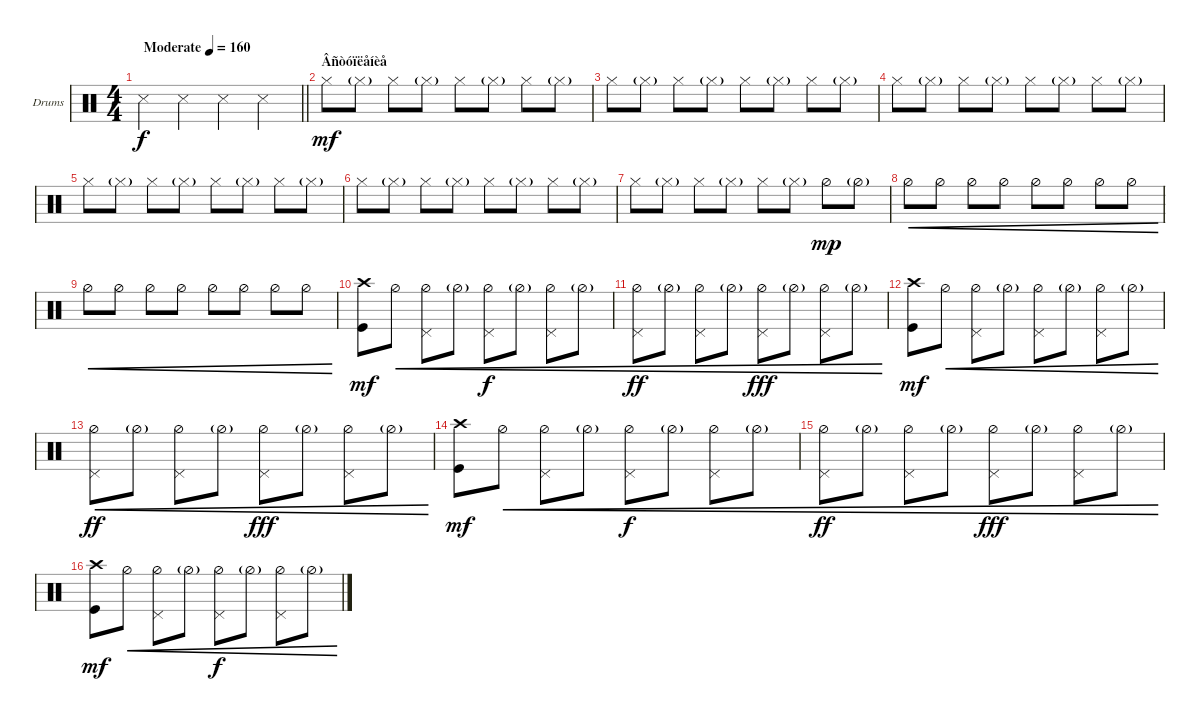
\bracketExtendMode groupsimilarinstruments
\firstSystemTrackNameOrientation horizontal
\otherSystemsTrackNameOrientation horizontal
\track ("Drumkit" "Drums") {instrument percussion}
\staff {score}
\articulation defaults
\ts (4 4)
\beaming (8 2 2 2 2)
\tempo (160 "Moderate")
\clef neutral
\barLineRight lightlight
\ks c "Snare (side stick) 3".4{dy f} "Snare (side stick) 3".4 "Snare (side stick) 3".4 "Snare (side stick) 3".4
|
\section ("" "Âñòóïëåíèå")
"Hi-Hat (closed)".8{dy mf} "Hi-Hat (closed)"{g}.8 "Hi-Hat (closed)".8 "Hi-Hat (closed)"{g}.8 "Hi-Hat (closed)".8 "Hi-Hat (closed)"{g}.8 "Hi-Hat (closed)".8 "Hi-Hat (closed)"{g}.8 |
"Hi-Hat (closed)".8 "Hi-Hat (closed)"{g}.8 "Hi-Hat (closed)".8 "Hi-Hat (closed)"{g}.8 "Hi-Hat (closed)".8 "Hi-Hat (closed)"{g}.8 "Hi-Hat (closed)".8 "Hi-Hat (closed)"{g}.8 |
"Hi-Hat (closed)".8 "Hi-Hat (closed)"{g}.8 "Hi-Hat (closed)".8 "Hi-Hat (closed)"{g}.8 "Hi-Hat (closed)".8 "Hi-Hat (closed)"{g}.8 "Hi-Hat (closed)".8 "Hi-Hat (closed)"{g}.8 |
"Hi-Hat (closed)".8 "Hi-Hat (closed)"{g}.8 "Hi-Hat (closed)".8 "Hi-Hat (closed)"{g}.8 "Hi-Hat (closed)".8 "Hi-Hat (closed)"{g}.8 "Hi-Hat (closed)".8 "Hi-Hat (closed)"{g}.8 |
"Hi-Hat (closed)".8 "Hi-Hat (closed)"{g}.8 "Hi-Hat (closed)".8 "Hi-Hat (closed)"{g}.8 "Hi-Hat (closed)".8 "Hi-Hat (closed)"{g}.8 "Hi-Hat (closed)".8 "Hi-Hat (closed)"{g}.8 |
"Hi-Hat (closed)".8 "Hi-Hat (closed)"{g}.8 "Hi-Hat (closed)".8 "Hi-Hat (closed)"{g}.8 "Hi-Hat (closed)".8 "Hi-Hat (closed)"{g}.8 "Hi-Hat (half)".8{dy mp} "Hi-Hat (half)"{g}.8 |
"Hi-Hat (half)".8{cre} "Hi-Hat (half)".8{cre} "Hi-Hat (half)".8{cre} "Hi-Hat (half)".8{cre} "Hi-Hat (half)".8{cre} "Hi-Hat (half)".8{cre} "Hi-Hat (half)".8{cre} "Hi-Hat (half)".8{cre} |
"Hi-Hat (half)".8{cre} "Hi-Hat (half)".8{cre} "Hi-Hat (half)".8{cre} "Hi-Hat (half)".8{cre} "Hi-Hat (half)".8{cre} "Hi-Hat (half)".8{cre} "Hi-Hat (half)".8{cre} "Hi-Hat (half)".8{cre} |
("Crash high (hit)" "Kick (hit)").8{dy mf} "Hi-Hat (half)".8{cre} ("Pedal Hi-Hat (hit)" "Hi-Hat (half)").8{cre} "Hi-Hat (half)"{g}.8{cre} ("Pedal Hi-Hat (hit)" "Hi-Hat (half)").8{cre dy f} "Hi-Hat (half)"{g}.8{cre} ("Pedal Hi-Hat (hit)" "Hi-Hat (half)").8{cre} "Hi-Hat (half)"{g}.8{cre} |
("Pedal Hi-Hat (hit)" "Hi-Hat (half)").8{cre dy ff} "Hi-Hat (half)"{g}.8{cre} ("Pedal Hi-Hat (hit)" "Hi-Hat (half)").8{cre} "Hi-Hat (half)"{g}.8{cre} ("Pedal Hi-Hat (hit)" "Hi-Hat (half)").8{cre dy fff} "Hi-Hat (half)"{g}.8{cre} ("Pedal Hi-Hat (hit)" "Hi-Hat (half)").8{cre} "Hi-Hat (half)"{g}.8{cre} |
("Crash high (hit)" "Kick (hit)").8{dy mf} "Hi-Hat (half)".8{cre} ("Pedal Hi-Hat (hit)" "Hi-Hat (half)").8{cre} "Hi-Hat (half)"{g}.8{cre} ("Pedal Hi-Hat (hit)" "Hi-Hat (half)").8{cre} "Hi-Hat (half)"{g}.8{cre} ("Pedal Hi-Hat (hit)" "Hi-Hat (half)").8{cre} "Hi-Hat (half)"{g}.8{cre} |
("Pedal Hi-Hat (hit)" "Hi-Hat (half)").8{cre dy ff} "Hi-Hat (half)"{g}.8{cre} ("Pedal Hi-Hat (hit)" "Hi-Hat (half)").8{cre} "Hi-Hat (half)"{g}.8{cre} ("Pedal Hi-Hat (hit)" "Hi-Hat (half)").8{cre dy fff} "Hi-Hat (half)"{g}.8{cre} ("Pedal Hi-Hat (hit)" "Hi-Hat (half)").8{cre} "Hi-Hat (half)"{g}.8{cre} |
("Crash high (hit)" "Kick (hit)").8{dy mf} "Hi-Hat (half)".8{cre} ("Pedal Hi-Hat (hit)" "Hi-Hat (half)").8{cre} "Hi-Hat (half)"{g}.8{cre} ("Pedal Hi-Hat (hit)" "Hi-Hat (half)").8{cre dy f} "Hi-Hat (half)"{g}.8{cre} ("Pedal Hi-Hat (hit)" "Hi-Hat (half)").8{cre} "Hi-Hat (half)"{g}.8{cre} |
("Pedal Hi-Hat (hit)" "Hi-Hat (half)").8{cre dy ff} "Hi-Hat (half)"{g}.8{cre} ("Pedal Hi-Hat (hit)" "Hi-Hat (half)").8{cre} "Hi-Hat (half)"{g}.8{cre} ("Pedal Hi-Hat (hit)" "Hi-Hat (half)").8{cre dy fff} "Hi-Hat (half)"{g}.8{cre} ("Pedal Hi-Hat (hit)" "Hi-Hat (half)").8{cre} "Hi-Hat (half)"{g}.8{cre} |
("Crash high (hit)" "Kick (hit)").8{dy mf} "Hi-Hat (half)".8{cre} ("Pedal Hi-Hat (hit)" "Hi-Hat (half)").8{cre} "Hi-Hat (half)"{g}.8{cre} ("Pedal Hi-Hat (hit)" "Hi-Hat (half)").8{cre dy f} "Hi-Hat (half)"{g}.8{cre} ("Pedal Hi-Hat (hit)" "Hi-Hat (half)").8{cre} "Hi-Hat (half)"{g}.8{cre}
